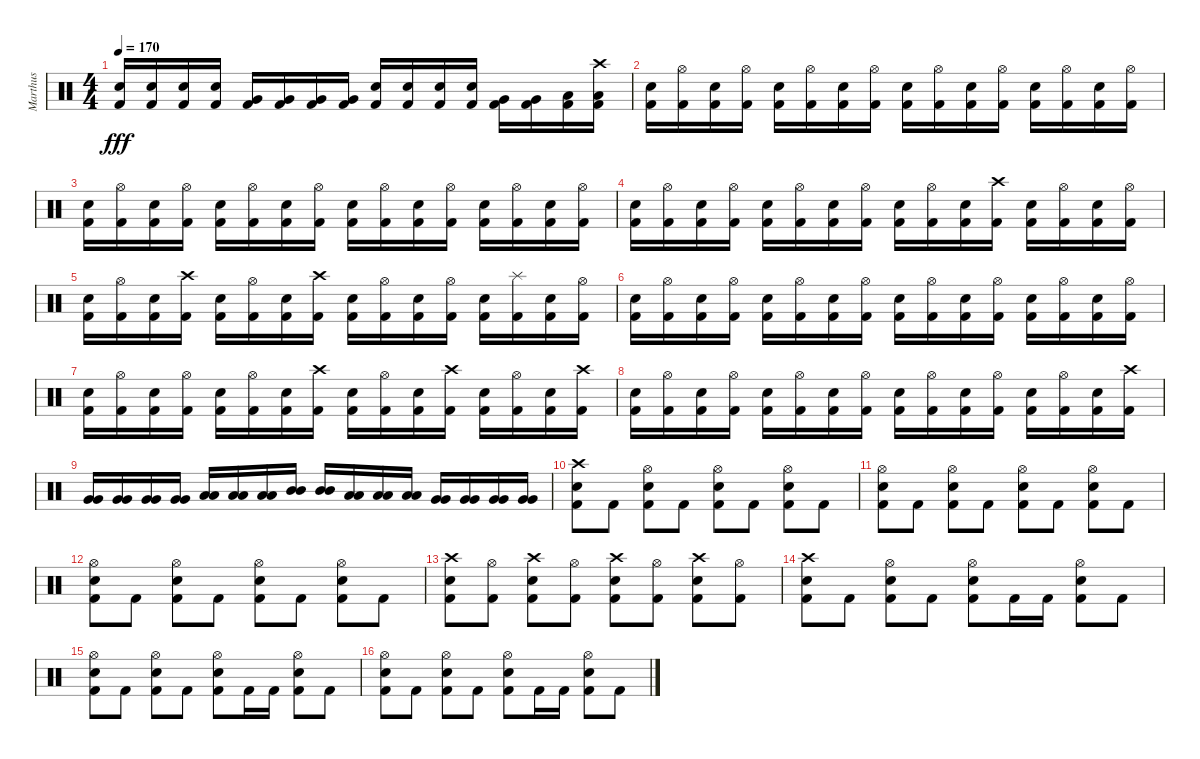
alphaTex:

\track ("Marthus" "Marthus") {instrument percussion}
\staff {score}
\articulation defaults
\ts (4 4)
\tempo 170
\clef neutral
\ks c
("Electric Snare (hit)" "Kick (hit) 2").16{dy fff} ("Electric Snare (hit)" "Kick (hit) 2").16 ("Electric Snare (hit)" "Kick (hit) 2").16 ("Electric Snare (hit)" "Kick (hit) 2").16 ("Very Low Tom (hit)" "Kick (hit) 2").16 ("Very Low Tom (hit)" "Kick (hit) 2").16 ("Very Low Tom (hit)" "Kick (hit) 2").16 ("Very Low Tom (hit)" "Kick (hit) 2").16 ("Electric Snare (hit)" "Kick (hit) 2").16 ("Electric Snare (hit)" "Kick (hit) 2").16 ("Electric Snare (hit)" "Kick (hit) 2").16 ("Electric Snare (hit)" "Kick (hit) 2").16 ("Very Low Tom (hit)" "Kick (hit) 2").16 ("Very Low Tom (hit)" "Kick (hit) 2").16 ("Low Tom (hit)" "Kick (hit) 2").16 ("Crash high (hit)" "Low Tom (hit)" "Kick (hit) 2").16 |
("Electric Snare (hit)" "Kick (hit) 2").16 ("Hi-Hat (open)" "Kick (hit) 2").16 ("Electric Snare (hit)" "Kick (hit) 2").16 ("Hi-Hat (open)" "Kick (hit) 2").16 ("Electric Snare (hit)" "Kick (hit) 2").16 ("Hi-Hat (open)" "Kick (hit) 2").16 ("Electric Snare (hit)" "Kick (hit) 2").16 ("Hi-Hat (open)" "Kick (hit) 2").16 ("Electric Snare (hit)" "Kick (hit) 2").16 ("Hi-Hat (open)" "Kick (hit) 2").16 ("Electric Snare (hit)" "Kick (hit) 2").16 ("Hi-Hat (open)" "Kick (hit) 2").16 ("Electric Snare (hit)" "Kick (hit) 2").16 ("Hi-Hat (open)" "Kick (hit) 2").16 ("Electric Snare (hit)" "Kick (hit) 2").16 ("Hi-Hat (open)" "Kick (hit) 2").16 |
("Electric Snare (hit)" "Kick (hit) 2").16 ("Hi-Hat (open)" "Kick (hit) 2").16 ("Electric Snare (hit)" "Kick (hit) 2").16 ("Hi-Hat (open)" "Kick (hit) 2").16 ("Electric Snare (hit)" "Kick (hit) 2").16 ("Hi-Hat (open)" "Kick (hit) 2").16 ("Electric Snare (hit)" "Kick (hit) 2").16 ("Hi-Hat (open)" "Kick (hit) 2").16 ("Electric Snare (hit)" "Kick (hit) 2").16 ("Hi-Hat (open)" "Kick (hit) 2").16 ("Electric Snare (hit)" "Kick (hit) 2").16 ("Hi-Hat (open)" "Kick (hit) 2").16 ("Electric Snare (hit)" "Kick (hit) 2").16 ("Hi-Hat (open)" "Kick (hit) 2").16 ("Electric Snare (hit)" "Kick (hit) 2").16 ("Hi-Hat (open)" "Kick (hit) 2").16 |
("Electric Snare (hit)" "Kick (hit) 2").16 ("Hi-Hat (open)" "Kick (hit) 2").16 ("Electric Snare (hit)" "Kick (hit) 2").16 ("Hi-Hat (open)" "Kick (hit) 2").16 ("Electric Snare (hit)" "Kick (hit) 2").16 ("Hi-Hat (open)" "Kick (hit) 2").16 ("Electric Snare (hit)" "Kick (hit) 2").16 ("Hi-Hat (open)" "Kick (hit) 2").16 ("Electric Snare (hit)" "Kick (hit) 2").16 ("Hi-Hat (open)" "Kick (hit) 2").16 ("Electric Snare (hit)" "Kick (hit) 2").16 ("Crash high (hit)" "Kick (hit) 2").16 ("Electric Snare (hit)" "Kick (hit) 2").16 ("Hi-Hat (open)" "Kick (hit) 2").16 ("Electric Snare (hit)" "Kick (hit) 2").16 ("Hi-Hat (open)" "Kick (hit) 2").16 |
("Electric Snare (hit)" "Kick (hit) 2").16 ("Hi-Hat (open)" "Kick (hit) 2").16 ("Electric Snare (hit)" "Kick (hit) 2").16 ("Crash high (hit)" "Kick (hit) 2").16 ("Electric Snare (hit)" "Kick (hit) 2").16 ("Hi-Hat (open)" "Kick (hit) 2").16 ("Electric Snare (hit)" "Kick (hit) 2").16 ("Crash high (hit)" "Kick (hit) 2").16 ("Electric Snare (hit)" "Kick (hit) 2").16 ("Hi-Hat (open)" "Kick (hit) 2").16 ("Electric Snare (hit)" "Kick (hit) 2").16 ("Hi-Hat (open)" "Kick (hit) 2").16 ("Electric Snare (hit)" "Kick (hit) 2").16 ("Splash (hit)" "Kick (hit) 2").16 ("Electric Snare (hit)" "Kick (hit) 2").16 ("Hi-Hat (open)" "Kick (hit) 2").16 |
("Electric Snare (hit)" "Kick (hit) 2").16 ("Hi-Hat (open)" "Kick (hit) 2").16 ("Electric Snare (hit)" "Kick (hit) 2").16 ("Hi-Hat (open)" "Kick (hit) 2").16 ("Electric Snare (hit)" "Kick (hit) 2").16 ("Hi-Hat (open)" "Kick (hit) 2").16 ("Electric Snare (hit)" "Kick (hit) 2").16 ("Hi-Hat (open)" "Kick (hit) 2").16 ("Electric Snare (hit)" "Kick (hit) 2").16 ("Hi-Hat (open)" "Kick (hit) 2").16 ("Electric Snare (hit)" "Kick (hit) 2").16 ("Hi-Hat (open)" "Kick (hit) 2").16 ("Electric Snare (hit)" "Kick (hit) 2").16 ("Hi-Hat (open)" "Kick (hit) 2").16 ("Electric Snare (hit)" "Kick (hit) 2").16 ("Hi-Hat (open)" "Kick (hit) 2").16 |
("Electric Snare (hit)" "Kick (hit) 2").16 ("Hi-Hat (open)" "Kick (hit) 2").16 ("Electric Snare (hit)" "Kick (hit) 2").16 ("Hi-Hat (open)" "Kick (hit) 2").16 ("Electric Snare (hit)" "Kick (hit) 2").16 ("Hi-Hat (open)" "Kick (hit) 2").16 ("Electric Snare (hit)" "Kick (hit) 2").16 ("Crash high (hit)" "Kick (hit) 2").16 ("Electric Snare (hit)" "Kick (hit) 2").16 ("Hi-Hat (open)" "Kick (hit) 2").16 ("Electric Snare (hit)" "Kick (hit) 2").16 ("Crash high (hit)" "Kick (hit) 2").16 ("Electric Snare (hit)" "Kick (hit) 2").16 ("Hi-Hat (open)" "Kick (hit) 2").16 ("Electric Snare (hit)" "Kick (hit) 2").16 ("Crash high (hit)" "Kick (hit) 2").16 |
("Electric Snare (hit)" "Kick (hit) 2").16 ("Hi-Hat (open)" "Kick (hit) 2").16 ("Electric Snare (hit)" "Kick (hit) 2").16 ("Hi-Hat (open)" "Kick (hit) 2").16 ("Electric Snare (hit)" "Kick (hit) 2").16 ("Hi-Hat (open)" "Kick (hit) 2").16 ("Electric Snare (hit)" "Kick (hit) 2").16 ("Hi-Hat (open)" "Kick (hit) 2").16 ("Electric Snare (hit)" "Kick (hit) 2").16 ("Hi-Hat (open)" "Kick (hit) 2").16 ("Electric Snare (hit)" "Kick (hit) 2").16 ("Hi-Hat (open)" "Kick (hit) 2").16 ("Electric Snare (hit)" "Kick (hit) 2").16 ("Hi-Hat (open)" "Kick (hit) 2").16 ("Electric Snare (hit)" "Kick (hit) 2").16 ("Crash high (hit)" "Kick (hit) 2").16 |
("Very Low Tom (hit)" "Very Low Tom (hit)").16 ("Very Low Tom (hit)" "Very Low Tom (hit)").16 ("Very Low Tom (hit)" "Very Low Tom (hit)").16 ("Very Low Tom (hit)" "Very Low Tom (hit)").16 ("Low Tom (hit)" "Low Tom (hit)").16 ("Low Tom (hit)" "Low Tom (hit)").16 ("Low Tom (hit)" "Low Tom (hit)").16 ("Mid Tom (hit)" "Mid Tom (hit)").16 ("Mid Tom (hit)" "Mid Tom (hit)").16 ("Low Tom (hit)" "Low Tom (hit)").16 ("Low Tom (hit)" "Low Tom (hit)").16 ("Low Tom (hit)" "Low Tom (hit)").16 ("Very Low Tom (hit)" "Very Low Tom (hit)").16 ("Very Low Tom (hit)" "Very Low Tom (hit)").16 ("Very Low Tom (hit)" "Very Low Tom (hit)").16 ("Very Low Tom (hit)" "Very Low Tom (hit)").16 |
("Crash high (hit)" "Electric Snare (hit)" "Kick (hit) 2").8 "Kick (hit) 2".8 ("Hi-Hat (open)" "Electric Snare (hit)" "Kick (hit) 2").8 "Kick (hit) 2".8 ("Hi-Hat (open)" "Electric Snare (hit)" "Kick (hit) 2").8 "Kick (hit) 2".8 ("Hi-Hat (open)" "Electric Snare (hit)" "Kick (hit) 2").8 "Kick (hit) 2".8 |
("Hi-Hat (open)" "Electric Snare (hit)" "Kick (hit) 2").8 "Kick (hit) 2".8 ("Hi-Hat (open)" "Electric Snare (hit)" "Kick (hit) 2").8 "Kick (hit) 2".8 ("Hi-Hat (open)" "Electric Snare (hit)" "Kick (hit) 2").8 "Kick (hit) 2".8 ("Hi-Hat (open)" "Electric Snare (hit)" "Kick (hit) 2").8 "Kick (hit) 2".8 |
("Hi-Hat (open)" "Electric Snare (hit)" "Kick (hit) 2").8 "Kick (hit) 2".8 ("Hi-Hat (open)" "Electric Snare (hit)" "Kick (hit) 2").8 "Kick (hit) 2".8 ("Hi-Hat (open)" "Electric Snare (hit)" "Kick (hit) 2").8 "Kick (hit) 2".8 ("Hi-Hat (open)" "Electric Snare (hit)" "Kick (hit) 2").8 "Kick (hit) 2".8 |
("Crash high (hit)" "Electric Snare (hit)" "Kick (hit) 2").8 ("Hi-Hat (open)" "Kick (hit) 2").8 ("Crash high (hit)" "Electric Snare (hit)" "Kick (hit) 2").8 ("Hi-Hat (open)" "Kick (hit) 2").8 ("Crash high (hit)" "Electric Snare (hit)" "Kick (hit) 2").8 ("Hi-Hat (open)" "Kick (hit) 2").8 ("Crash high (hit)" "Electric Snare (hit)" "Kick (hit) 2").8 ("Hi-Hat (open)" "Kick (hit) 2").8 |
("Crash high (hit)" "Electric Snare (hit)" "Kick (hit) 2").8 "Kick (hit) 2".8 ("Hi-Hat (open)" "Electric Snare (hit)" "Kick (hit) 2").8 "Kick (hit) 2".8 ("Hi-Hat (open)" "Electric Snare (hit)" "Kick (hit) 2").8 "Kick (hit) 2".16 "Kick (hit) 2".16 ("Hi-Hat (open)" "Electric Snare (hit)" "Kick (hit) 2").8 "Kick (hit) 2".8 |
("Hi-Hat (open)" "Electric Snare (hit)" "Kick (hit) 2").8 "Kick (hit) 2".8 ("Hi-Hat (open)" "Electric Snare (hit)" "Kick (hit) 2").8 "Kick (hit) 2".8 ("Hi-Hat (open)" "Electric Snare (hit)" "Kick (hit) 2").8 "Kick (hit) 2".16 "Kick (hit) 2".16 ("Hi-Hat (open)" "Electric Snare (hit)" "Kick (hit) 2").8 "Kick (hit) 2".8 |
("Hi-Hat (open)" "Electric Snare (hit)" "Kick (hit) 2").8 "Kick (hit) 2".8 ("Hi-Hat (open)" "Electric Snare (hit)" "Kick (hit) 2").8 "Kick (hit) 2".8 ("Hi-Hat (open)" "Electric Snare (hit)" "Kick (hit) 2").8 "Kick (hit) 2".16 "Kick (hit) 2".16 ("Hi-Hat (open)" "Electric Snare (hit)" "Kick (hit) 2").8 "Kick (hit) 2".8
